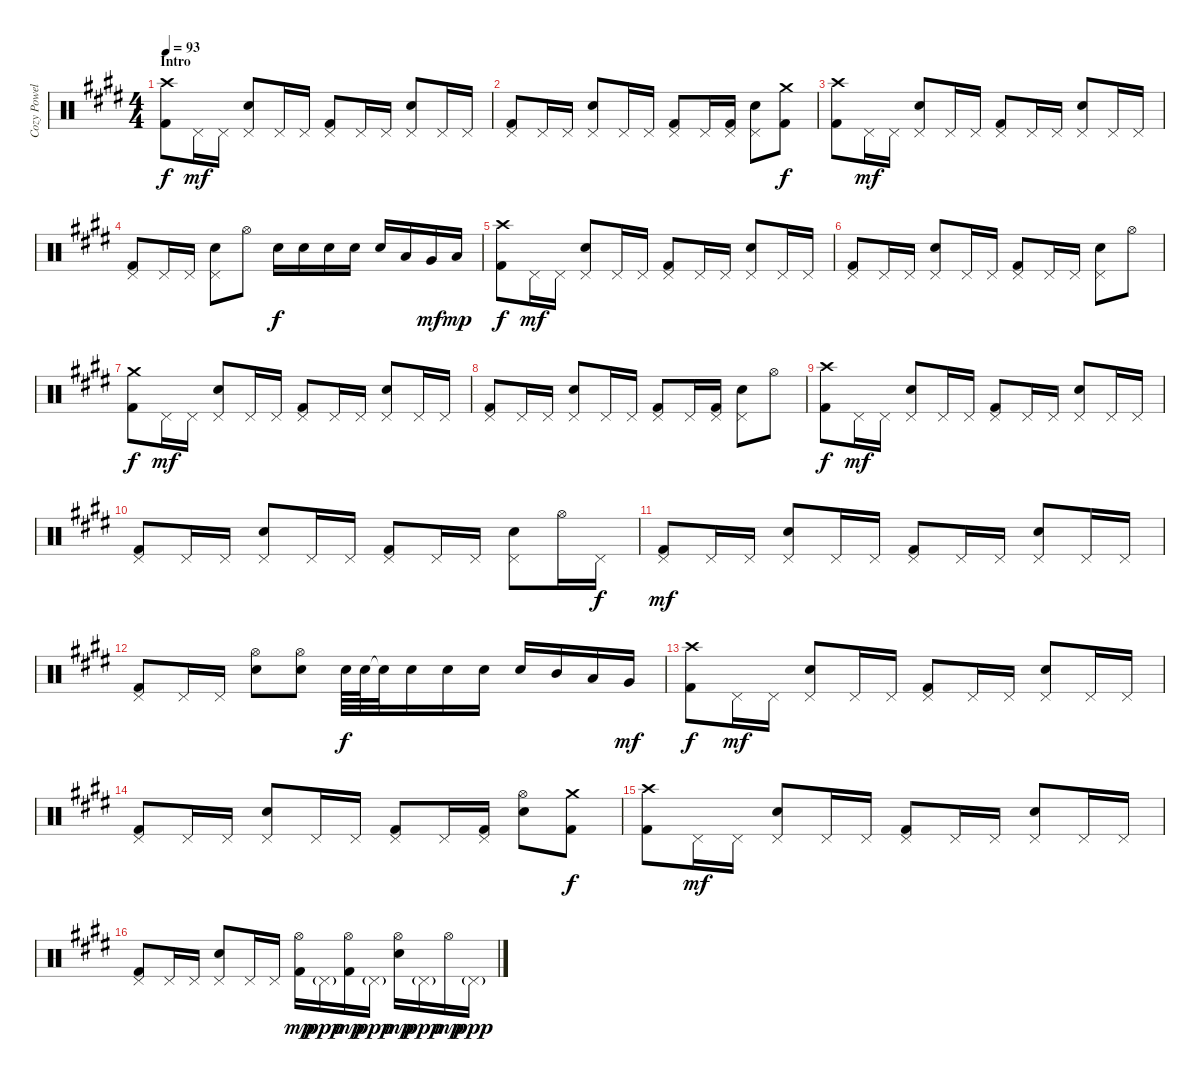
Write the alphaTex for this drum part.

\track ("Cozy Powell" "Cozy Powel") {instrument percussion}
\staff {score}
\articulation defaults
\ts (4 4)
\section ("" "Intro")
\tempo 93
\clef neutral
\ks c#minor
("Kick (hit) 2" "Crash high (hit)").8{dy f} "Pedal Hi-Hat (hit)".16{dy mf} "Pedal Hi-Hat (hit)".16 ("Pedal Hi-Hat (hit)" "Snare (hit) 2").8 "Pedal Hi-Hat (hit)".16 "Pedal Hi-Hat (hit)".16 ("Kick (hit) 2" "Pedal Hi-Hat (hit)").8 "Pedal Hi-Hat (hit)".16 "Pedal Hi-Hat (hit)".16 ("Pedal Hi-Hat (hit)" "Snare (hit) 2").8 "Pedal Hi-Hat (hit)".16 "Pedal Hi-Hat (hit)".16 |
("Kick (hit) 2" "Pedal Hi-Hat (hit)").8 "Pedal Hi-Hat (hit)".16 "Pedal Hi-Hat (hit)".16 ("Pedal Hi-Hat (hit)" "Snare (hit) 2").8 "Pedal Hi-Hat (hit)".16 "Pedal Hi-Hat (hit)".16 ("Kick (hit) 2" "Pedal Hi-Hat (hit)").8 "Pedal Hi-Hat (hit)".16 ("Kick (hit) 2" "Pedal Hi-Hat (hit)").16 ("Pedal Hi-Hat (hit)" "Snare (hit) 2").8 ("Kick (hit) 2" "Crash medium (hit)").8{dy f} |
("Kick (hit) 2" "Crash high (hit)").8 "Pedal Hi-Hat (hit)".16{dy mf} "Pedal Hi-Hat (hit)".16 ("Pedal Hi-Hat (hit)" "Snare (hit) 2").8 "Pedal Hi-Hat (hit)".16 "Pedal Hi-Hat (hit)".16 ("Kick (hit) 2" "Pedal Hi-Hat (hit)").8 "Pedal Hi-Hat (hit)".16 "Pedal Hi-Hat (hit)".16 ("Pedal Hi-Hat (hit)" "Snare (hit) 2").8 "Pedal Hi-Hat (hit)".16 "Pedal Hi-Hat (hit)".16 |
("Kick (hit) 2" "Pedal Hi-Hat (hit)").8 "Pedal Hi-Hat (hit)".16 "Pedal Hi-Hat (hit)".16 ("Pedal Hi-Hat (hit)" "Snare (hit) 2").8 "Hi-Hat (open)".8 "Snare (hit) 2".16{dy f} "Snare (hit) 2".16 "Snare (hit) 2".16 "Snare (hit) 2".16 "Snare (hit) 2".16 "Low Tom (hit)".16 "Very Low Tom (hit)".16{dy mf} "Low Floor Tom (hit)".16{dy mp} |
("Kick (hit) 2" "Crash high (hit)").8{dy f} "Pedal Hi-Hat (hit)".16{dy mf} "Pedal Hi-Hat (hit)".16 ("Pedal Hi-Hat (hit)" "Snare (hit) 2").8 "Pedal Hi-Hat (hit)".16 "Pedal Hi-Hat (hit)".16 ("Kick (hit) 2" "Pedal Hi-Hat (hit)").8 "Pedal Hi-Hat (hit)".16 "Pedal Hi-Hat (hit)".16 ("Pedal Hi-Hat (hit)" "Snare (hit) 2").8 "Pedal Hi-Hat (hit)".16 "Pedal Hi-Hat (hit)".16 |
("Kick (hit) 2" "Pedal Hi-Hat (hit)").8 "Pedal Hi-Hat (hit)".16 "Pedal Hi-Hat (hit)".16 ("Pedal Hi-Hat (hit)" "Snare (hit) 2").8 "Pedal Hi-Hat (hit)".16 "Pedal Hi-Hat (hit)".16 ("Kick (hit) 2" "Pedal Hi-Hat (hit)").8 "Pedal Hi-Hat (hit)".16 "Pedal Hi-Hat (hit)".16 ("Pedal Hi-Hat (hit)" "Snare (hit) 2").8 "Hi-Hat (open)".8 |
("Kick (hit) 2" "Crash medium (hit)").8{dy f} "Pedal Hi-Hat (hit)".16{dy mf} "Pedal Hi-Hat (hit)".16 ("Pedal Hi-Hat (hit)" "Snare (hit) 2").8 "Pedal Hi-Hat (hit)".16 "Pedal Hi-Hat (hit)".16 ("Kick (hit) 2" "Pedal Hi-Hat (hit)").8 "Pedal Hi-Hat (hit)".16 "Pedal Hi-Hat (hit)".16 ("Pedal Hi-Hat (hit)" "Snare (hit) 2").8 "Pedal Hi-Hat (hit)".16 "Pedal Hi-Hat (hit)".16 |
("Kick (hit) 2" "Pedal Hi-Hat (hit)").8 "Pedal Hi-Hat (hit)".16 "Pedal Hi-Hat (hit)".16 ("Pedal Hi-Hat (hit)" "Snare (hit) 2").8 "Pedal Hi-Hat (hit)".16 "Pedal Hi-Hat (hit)".16 ("Kick (hit) 2" "Pedal Hi-Hat (hit)").8 "Pedal Hi-Hat (hit)".16 ("Kick (hit) 2" "Pedal Hi-Hat (hit)").16 ("Pedal Hi-Hat (hit)" "Snare (hit) 2").8 "Hi-Hat (open)".8 |
("Kick (hit) 2" "Crash high (hit)").8{dy f} "Pedal Hi-Hat (hit)".16{dy mf} "Pedal Hi-Hat (hit)".16 ("Pedal Hi-Hat (hit)" "Snare (hit) 2").8 "Pedal Hi-Hat (hit)".16 "Pedal Hi-Hat (hit)".16 ("Kick (hit) 2" "Pedal Hi-Hat (hit)").8 "Pedal Hi-Hat (hit)".16 "Pedal Hi-Hat (hit)".16 ("Pedal Hi-Hat (hit)" "Snare (hit) 2").8 "Pedal Hi-Hat (hit)".16 "Pedal Hi-Hat (hit)".16 |
("Kick (hit) 2" "Pedal Hi-Hat (hit)").8 "Pedal Hi-Hat (hit)".16 "Pedal Hi-Hat (hit)".16 ("Pedal Hi-Hat (hit)" "Snare (hit) 2").8 "Pedal Hi-Hat (hit)".16 "Pedal Hi-Hat (hit)".16 ("Kick (hit) 2" "Pedal Hi-Hat (hit)").8 "Pedal Hi-Hat (hit)".16 "Pedal Hi-Hat (hit)".16 ("Pedal Hi-Hat (hit)" "Snare (hit) 2").8 "Hi-Hat (open)".16 "Pedal Hi-Hat (hit)".16{dy f} |
("Kick (hit) 2" "Pedal Hi-Hat (hit)").8{dy mf} "Pedal Hi-Hat (hit)".16 "Pedal Hi-Hat (hit)".16 ("Pedal Hi-Hat (hit)" "Snare (hit) 2").8 "Pedal Hi-Hat (hit)".16 "Pedal Hi-Hat (hit)".16 ("Kick (hit) 2" "Pedal Hi-Hat (hit)").8 "Pedal Hi-Hat (hit)".16 "Pedal Hi-Hat (hit)".16 ("Pedal Hi-Hat (hit)" "Snare (hit) 2").8 "Pedal Hi-Hat (hit)".16 "Pedal Hi-Hat (hit)".16 |
("Kick (hit) 2" "Pedal Hi-Hat (hit)").8 "Pedal Hi-Hat (hit)".16 "Pedal Hi-Hat (hit)".16 ("Hi-Hat (open)" "Snare (hit) 2").8 ("Hi-Hat (open)" "Snare (hit) 2").8 "Snare (hit) 2".64{dy f} "Snare (hit) 2".64 "Snare (hit)"{t}.32 "Snare (hit) 2".16 "Snare (hit) 2".16 "Snare (hit) 2".16 "Snare (hit) 2".16 "Mid Tom (hit)".16 "Low Tom (hit)".16 "Very Low Tom (hit)".16{dy mf} |
("Kick (hit) 2" "Crash high (hit)").8{dy f} "Pedal Hi-Hat (hit)".16{dy mf} "Pedal Hi-Hat (hit)".16 ("Pedal Hi-Hat (hit)" "Snare (hit) 2").8 "Pedal Hi-Hat (hit)".16 "Pedal Hi-Hat (hit)".16 ("Kick (hit) 2" "Pedal Hi-Hat (hit)").8 "Pedal Hi-Hat (hit)".16 "Pedal Hi-Hat (hit)".16 ("Pedal Hi-Hat (hit)" "Snare (hit) 2").8 "Pedal Hi-Hat (hit)".16 "Pedal Hi-Hat (hit)".16 |
("Kick (hit) 2" "Pedal Hi-Hat (hit)").8 "Pedal Hi-Hat (hit)".16 "Pedal Hi-Hat (hit)".16 ("Pedal Hi-Hat (hit)" "Snare (hit) 2").8 "Pedal Hi-Hat (hit)".16 "Pedal Hi-Hat (hit)".16 ("Kick (hit) 2" "Pedal Hi-Hat (hit)").8 "Pedal Hi-Hat (hit)".16 ("Kick (hit) 2" "Pedal Hi-Hat (hit)").16 ("Hi-Hat (open)" "Snare (hit) 2").8 ("Kick (hit) 2" "Crash medium (hit)").8{dy f} |
("Kick (hit) 2" "Crash high (hit)").8 "Pedal Hi-Hat (hit)".16{dy mf} "Pedal Hi-Hat (hit)".16 ("Pedal Hi-Hat (hit)" "Snare (hit) 2").8 "Pedal Hi-Hat (hit)".16 "Pedal Hi-Hat (hit)".16 ("Kick (hit) 2" "Pedal Hi-Hat (hit)").8 "Pedal Hi-Hat (hit)".16 "Pedal Hi-Hat (hit)".16 ("Pedal Hi-Hat (hit)" "Snare (hit) 2").8 "Pedal Hi-Hat (hit)".16 "Pedal Hi-Hat (hit)".16 |
("Kick (hit) 2" "Pedal Hi-Hat (hit)").8 "Pedal Hi-Hat (hit)".16 "Pedal Hi-Hat (hit)".16 ("Pedal Hi-Hat (hit)" "Snare (hit) 2").8 "Pedal Hi-Hat (hit)".16 "Pedal Hi-Hat (hit)".16 ("Kick (hit) 2" "Hi-Hat (open)").16{dy mp} "Pedal Hi-Hat (hit)"{g}.16{dy ppp} ("Kick (hit) 2" "Hi-Hat (open)").16{dy mp} "Pedal Hi-Hat (hit)"{g}.16{dy ppp} ("Hi-Hat (open)" "Snare (hit) 2").16{dy mp} "Pedal Hi-Hat (hit)"{g}.16{dy ppp} "Hi-Hat (open)".16{dy mp} "Pedal Hi-Hat (hit)"{g}.16{dy ppp}
